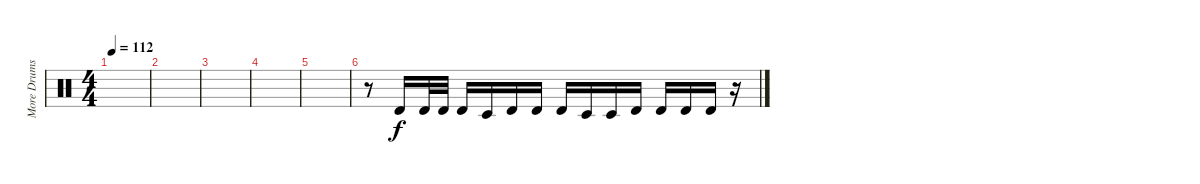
\track ("More Drums" "More Drums") {instrument percussion}
\staff {score}
\articulation defaults
\ts (4 4)
\tempo 112
\clef neutral
\ks c
|
|
|
|
|
r.8 "Timbale high (hit)".16 "Timbale high (hit)".32 "Timbale high (hit)".32 "Timbale high (hit)".16 "Timbale low (hit)".16 "Timbale high (hit)".16 "Timbale high (hit)".16 "Timbale high (hit)".16 "Timbale low (hit)".16 "Timbale low (hit)".16 "Timbale high (hit)".16 "Timbale high (hit)".16 "Timbale high (hit)".16 "Timbale high (hit)".16 r.16
